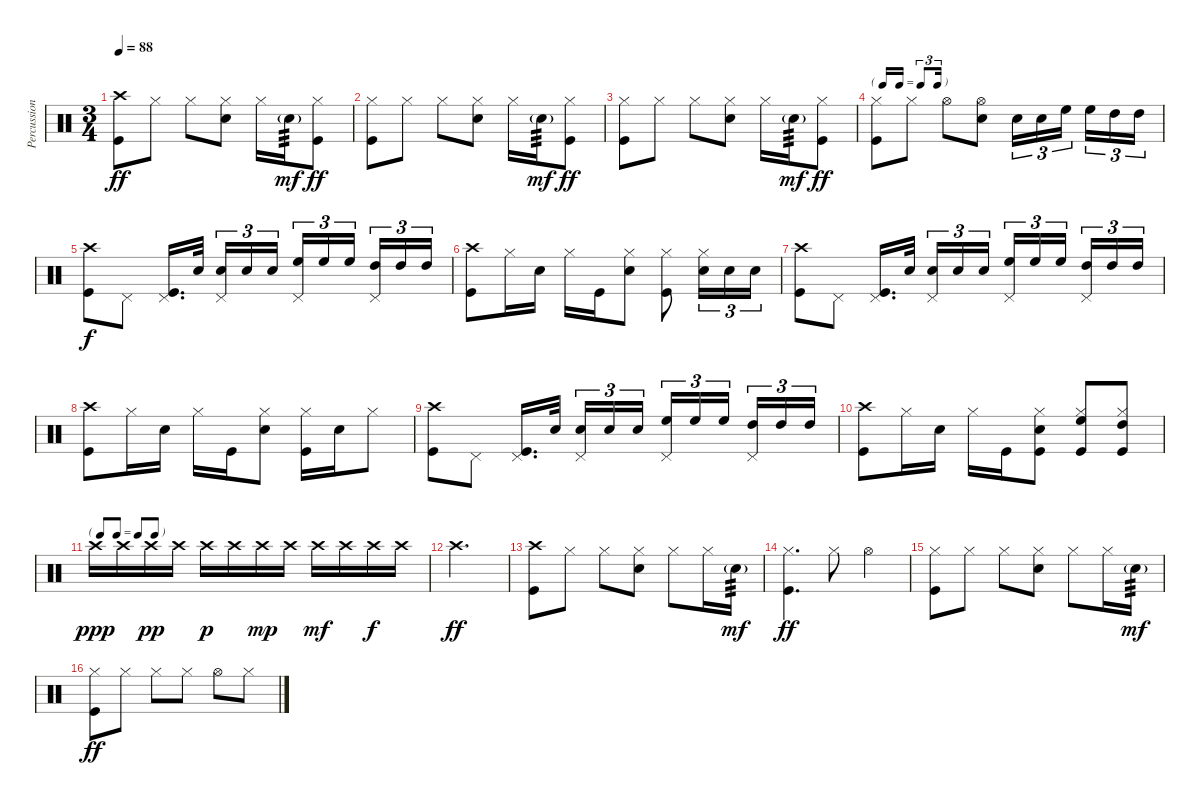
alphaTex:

\track ("Percussion" "Percussion") {instrument percussion}
\staff {score}
\articulation defaults
\ts (3 4)
\tempo 88
\clef neutral
\ks c
("Kick (hit)" "Crash high (hit)").8{dy ff} "Hi-Hat (closed)".8 "Hi-Hat (closed)".8 ("Snare (hit) 2" "Hi-Hat (closed)").8 "Hi-Hat (closed)".16 "Snare (hit) 2"{g}.16{tp 3 dy mf} ("Hi-Hat (closed)" "Kick (hit)").8{dy ff} |
("Kick (hit)" "Hi-Hat (closed)").8 "Hi-Hat (closed)".8 "Hi-Hat (closed)".8 ("Snare (hit) 2" "Hi-Hat (closed)").8 "Hi-Hat (closed)".16 "Snare (hit) 2"{g}.16{tp 3 dy mf} ("Hi-Hat (closed)" "Kick (hit)").8{dy ff} |
("Kick (hit)" "Hi-Hat (closed)").8 "Hi-Hat (closed)".8 "Hi-Hat (closed)".8 ("Snare (hit) 2" "Hi-Hat (closed)").8 "Hi-Hat (closed)".16 "Snare (hit) 2"{g}.16{tp 3 dy mf} ("Hi-Hat (closed)" "Kick (hit)").8{dy ff} |
\tf triplet16th
("Kick (hit)" "Hi-Hat (closed)").8 "Hi-Hat (closed)".8 "Hi-Hat (open)".8 ("Snare (hit) 2" "Hi-Hat (open)").8 "Snare (hit) 2".16{tu (3 2)} "Snare (hit) 2".16{tu (3 2)} "High Floor Tom (hit)".16{tu (3 2) beam splitsecondary} "High Floor Tom (hit)".16{tu (3 2)} "High Tom (hit)".16{tu (3 2)} "High Tom (hit)".16{tu (3 2)} |
("Kick (hit)" "Crash high (hit)").8{dy f} "Pedal Hi-Hat (hit)".8 ("Pedal Hi-Hat (hit)" "Kick (hit)").16{d} "Snare (hit) 2".32{beam splitsecondary} ("Snare (hit) 2" "Pedal Hi-Hat (hit)").16{tu (3 2)} "Snare (hit) 2".16{tu (3 2)} "Snare (hit) 2".16{tu (3 2)} ("High Floor Tom (hit)" "Pedal Hi-Hat (hit)").16{tu (3 2)} "High Floor Tom (hit)".16{tu (3 2)} "High Floor Tom (hit)".16{tu (3 2) beam splitsecondary} ("High Tom (hit)" "Pedal Hi-Hat (hit)").16{tu (3 2)} "High Tom (hit)".16{tu (3 2)} "High Tom (hit)".16{tu (3 2)} |
("Kick (hit)" "Crash high (hit)").8 "Hi-Hat (closed)".16 "Snare (hit) 2".16 "Hi-Hat (closed)".16 "Kick (hit)".16 ("Snare (hit) 2" "Hi-Hat (closed)").8 ("Hi-Hat (closed)" "Kick (hit)").8 ("Snare (hit) 2" "Hi-Hat (closed)").16{tu (3 2)} "Snare (hit) 2".16{tu (3 2)} "Snare (hit) 2".16{tu (3 2)} |
("Kick (hit)" "Crash high (hit)").8 "Pedal Hi-Hat (hit)".8 ("Pedal Hi-Hat (hit)" "Kick (hit)").16{d} "Snare (hit) 2".32{beam splitsecondary} ("Snare (hit) 2" "Pedal Hi-Hat (hit)").16{tu (3 2)} "Snare (hit) 2".16{tu (3 2)} "Snare (hit) 2".16{tu (3 2)} ("High Floor Tom (hit)" "Pedal Hi-Hat (hit)").16{tu (3 2)} "High Floor Tom (hit)".16{tu (3 2)} "High Floor Tom (hit)".16{tu (3 2) beam splitsecondary} ("High Tom (hit)" "Pedal Hi-Hat (hit)").16{tu (3 2)} "High Tom (hit)".16{tu (3 2)} "High Tom (hit)".16{tu (3 2)} |
("Kick (hit)" "Crash high (hit)").8 "Hi-Hat (closed)".16 "Snare (hit) 2".16 "Hi-Hat (closed)".16 "Kick (hit)".16 ("Snare (hit) 2" "Hi-Hat (closed)").8 ("Hi-Hat (closed)" "Kick (hit)").16 "Snare (hit) 2".16 "Hi-Hat (closed)".8 |
("Kick (hit)" "Crash high (hit)").8 "Pedal Hi-Hat (hit)".8 ("Pedal Hi-Hat (hit)" "Kick (hit)").16{d} "Snare (hit) 2".32{beam splitsecondary} ("Snare (hit) 2" "Pedal Hi-Hat (hit)").16{tu (3 2)} "Snare (hit) 2".16{tu (3 2)} "Snare (hit) 2".16{tu (3 2)} ("High Floor Tom (hit)" "Pedal Hi-Hat (hit)").16{tu (3 2)} "High Floor Tom (hit)".16{tu (3 2)} "High Floor Tom (hit)".16{tu (3 2) beam splitsecondary} ("High Tom (hit)" "Pedal Hi-Hat (hit)").16{tu (3 2)} "High Tom (hit)".16{tu (3 2)} "High Tom (hit)".16{tu (3 2)} |
("Kick (hit)" "Crash high (hit)").8 "Hi-Hat (closed)".16 "Snare (hit) 2".16 "Hi-Hat (closed)".16 "Kick (hit)".16 ("Snare (hit) 2" "Hi-Hat (closed)" "Kick (hit)").8 ("Hi-Hat (closed)" "Kick (hit)" "High Floor Tom (hit)").8 ("Kick (hit)" "High Tom (hit)" "Hi-Hat (closed)").8 |
\tf none "Crash high (hit)".16{dy ppp} "Crash high (hit)".16 "Crash high (hit)".16{dy pp} "Crash high (hit)".16 "Crash high (hit)".16{dy p} "Crash high (hit)".16 "Crash high (hit)".16{dy mp} "Crash high (hit)".16 "Crash high (hit)".16{dy mf} "Crash high (hit)".16 "Crash high (hit)".16{dy f} "Crash high (hit)".16
|
"Crash high (hit)".2{d dy ff} |
("Kick (hit)" "Crash high (hit)").8 "Hi-Hat (closed)".8 "Hi-Hat (closed)".8 ("Snare (hit) 2" "Hi-Hat (closed)").8 "Hi-Hat (closed)".8 "Hi-Hat (closed)".16 "Snare (hit) 2"{g}.16{tp 3 dy mf} |
("Hi-Hat (closed)" "Kick (hit)").4{d dy ff} "Hi-Hat (closed)".8 "Hi-Hat (open)".4 |
("Kick (hit)" "Hi-Hat (closed)").8 "Hi-Hat (closed)".8 "Hi-Hat (closed)".8 ("Snare (hit) 2" "Hi-Hat (closed)").8 "Hi-Hat (closed)".8 "Hi-Hat (closed)".16 "Snare (hit) 2"{g}.16{tp 3 dy mf} |
("Kick (hit)" "Hi-Hat (closed)").8{dy ff} "Hi-Hat (closed)".8 "Hi-Hat (closed)".8 "Hi-Hat (closed)".8 "Hi-Hat (open)".8 "Hi-Hat (closed)".8
